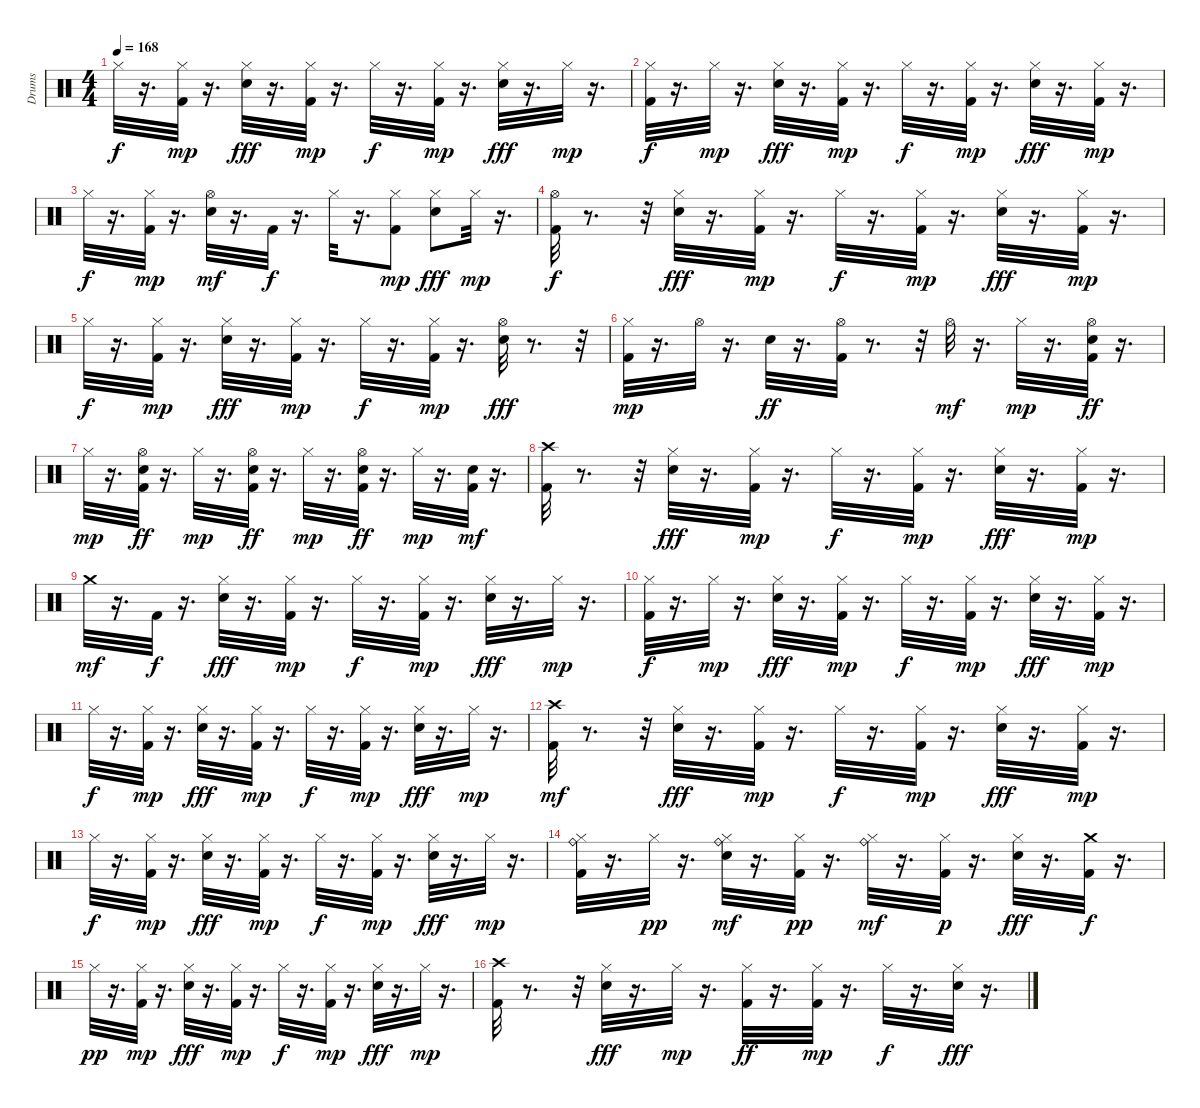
\track ("Drums" "Drums") {instrument percussion}
\staff {score}
\articulation defaults
\ts (4 4)
\tempo 168
\clef neutral
\ks c "Hi-Hat (closed)".32{dy f}
r.16{d} ("Kick (hit) 2" "Hi-Hat (closed)").32{dy mp} r.16{d} ("Electric Snare (hit)" "Hi-Hat (closed)").32{dy fff} r.16{d} ("Kick (hit) 2" "Hi-Hat (closed)").32{dy mp} r.16{d} "Hi-Hat (closed)".32{dy f} r.16{d} ("Kick (hit) 2" "Hi-Hat (closed)").32{dy mp} r.16{d} ("Electric Snare (hit)" "Hi-Hat (closed)").32{dy fff} r.16{d} "Hi-Hat (closed)".32{dy mp} r.16{d} |
("Kick (hit) 2" "Hi-Hat (closed)").32{dy f} r.16{d} "Hi-Hat (closed)".32{dy mp} r.16{d} ("Electric Snare (hit)" "Hi-Hat (closed)").32{dy fff} r.16{d} ("Kick (hit) 2" "Hi-Hat (closed)").32{dy mp} r.16{d} "Hi-Hat (closed)".32{dy f} r.16{d} ("Kick (hit) 2" "Hi-Hat (closed)").32{dy mp} r.16{d} ("Electric Snare (hit)" "Hi-Hat (closed)").32{dy fff} r.16{d} ("Kick (hit) 2" "Hi-Hat (closed)").32{dy mp} r.16{d} |
"Hi-Hat (closed)".32{dy f} r.16{d} ("Kick (hit) 2" "Hi-Hat (closed)").32{dy mp} r.16{d} ("Electric Snare (hit)" "Hi-Hat (open)").32{dy mf} r.16{d} "Kick (hit) 2".32{dy f} r.16{d} "Hi-Hat (closed)".32 r.16{d} ("Kick (hit) 2" "Hi-Hat (closed)").8{dy mp} ("Electric Snare (hit)" "Hi-Hat (closed)").8{dy fff} "Hi-Hat (closed)".32{dy mp} r.16{d} |
("Kick (hit) 2" "Hi-Hat (open)").32{dy f} r.8{d} r.32 ("Electric Snare (hit)" "Hi-Hat (closed)").32{dy fff} r.16{d} ("Kick (hit) 2" "Hi-Hat (closed)").32{dy mp} r.16{d} "Hi-Hat (closed)".32{dy f} r.16{d} ("Kick (hit) 2" "Hi-Hat (closed)").32{dy mp} r.16{d} ("Electric Snare (hit)" "Hi-Hat (closed)").32{dy fff} r.16{d} ("Kick (hit) 2" "Hi-Hat (closed)").32{dy mp} r.16{d} |
"Hi-Hat (closed)".32{dy f} r.16{d} ("Kick (hit) 2" "Hi-Hat (closed)").32{dy mp} r.16{d} ("Electric Snare (hit)" "Hi-Hat (closed)").32{dy fff} r.16{d} ("Kick (hit) 2" "Hi-Hat (closed)").32{dy mp} r.16{d} "Hi-Hat (closed)".32{dy f} r.16{d} ("Kick (hit) 2" "Hi-Hat (closed)").32{dy mp} r.16{d} ("Electric Snare (hit)" "Hi-Hat (open)").32{dy fff} r.8{d} r.32 |
("Kick (hit) 2" "Hi-Hat (closed)").32{dy mp} r.16{d} "Hi-Hat (open)".32 r.16{d} "Electric Snare (hit)".32{dy ff} r.16{d} ("Hi-Hat (open)" "Kick (hit) 2").32 r.8{d} r.32 "Hi-Hat (open)".32{dy mf} r.16{d} "Hi-Hat (closed)".32{dy mp} r.16{d} ("Hi-Hat (open)" "Kick (hit) 2" "Electric Snare (hit)").32{dy ff} r.16{d} |
"Hi-Hat (closed)".32{dy mp} r.16{d} ("Hi-Hat (open)" "Kick (hit) 2" "Electric Snare (hit)").32{dy ff} r.16{d} "Hi-Hat (closed)".32{dy mp} r.16{d} ("Hi-Hat (open)" "Kick (hit) 2" "Electric Snare (hit)").32{dy ff} r.16{d} "Hi-Hat (closed)".32{dy mp} r.16{d} ("Hi-Hat (open)" "Kick (hit) 2" "Electric Snare (hit)").32{dy ff} r.16{d} "Hi-Hat (closed)".32{dy mp} r.16{d} ("Electric Snare (hit)" "Kick (hit) 2").32{dy mf} r.16{d} |
("Kick (hit) 2" "Crash high (hit)").32 r.8{d} r.32 ("Electric Snare (hit)" "Hi-Hat (closed)").32{dy fff} r.16{d} ("Kick (hit) 2" "Hi-Hat (closed)").32{dy mp} r.16{d} "Hi-Hat (closed)".32{dy f} r.16{d} ("Kick (hit) 2" "Hi-Hat (closed)").32{dy mp} r.16{d} ("Electric Snare (hit)" "Hi-Hat (closed)").32{dy fff} r.16{d} ("Kick (hit) 2" "Hi-Hat (closed)").32{dy mp} r.16{d} |
"Crash medium (hit)".32{dy mf} r.16{d} "Kick (hit) 2".32{dy f} r.16{d} ("Electric Snare (hit)" "Hi-Hat (closed)").32{dy fff} r.16{d} ("Kick (hit) 2" "Hi-Hat (closed)").32{dy mp} r.16{d} "Hi-Hat (closed)".32{dy f} r.16{d} ("Kick (hit) 2" "Hi-Hat (closed)").32{dy mp} r.16{d} ("Electric Snare (hit)" "Hi-Hat (closed)").32{dy fff} r.16{d} "Hi-Hat (closed)".32{dy mp} r.16{d} |
("Kick (hit) 2" "Hi-Hat (closed)").32{dy f} r.16{d} "Hi-Hat (closed)".32{dy mp} r.16{d} ("Electric Snare (hit)" "Hi-Hat (closed)").32{dy fff} r.16{d} ("Kick (hit) 2" "Hi-Hat (closed)").32{dy mp} r.16{d} "Hi-Hat (closed)".32{dy f} r.16{d} ("Kick (hit) 2" "Hi-Hat (closed)").32{dy mp} r.16{d} ("Electric Snare (hit)" "Hi-Hat (closed)").32{dy fff} r.16{d} ("Kick (hit) 2" "Hi-Hat (closed)").32{dy mp} r.16{d} |
"Hi-Hat (closed)".32{dy f} r.16{d} ("Kick (hit) 2" "Hi-Hat (closed)").32{dy mp} r.16{d} ("Electric Snare (hit)" "Hi-Hat (closed)").32{dy fff} r.16{d} ("Kick (hit) 2" "Hi-Hat (closed)").32{dy mp} r.16{d} "Hi-Hat (closed)".32{dy f} r.16{d} ("Kick (hit) 2" "Hi-Hat (closed)").32{dy mp} r.16{d} ("Electric Snare (hit)" "Hi-Hat (closed)").32{dy fff} r.16{d} "Hi-Hat (closed)".32{dy mp} r.16{d} |
("Kick (hit) 2" "Crash high (hit)").32{dy mf} r.8{d} r.32 ("Electric Snare (hit)" "Hi-Hat (closed)").32{dy fff} r.16{d} ("Kick (hit) 2" "Hi-Hat (closed)").32{dy mp} r.16{d} "Hi-Hat (closed)".32{dy f} r.16{d} ("Kick (hit) 2" "Hi-Hat (closed)").32{dy mp} r.16{d} ("Electric Snare (hit)" "Hi-Hat (closed)").32{dy fff} r.16{d} ("Kick (hit) 2" "Hi-Hat (closed)").32{dy mp} r.16{d} |
"Hi-Hat (closed)".32{dy f} r.16{d} ("Kick (hit) 2" "Hi-Hat (closed)").32{dy mp} r.16{d} ("Electric Snare (hit)" "Hi-Hat (closed)").32{dy fff} r.16{d} ("Kick (hit) 2" "Hi-Hat (closed)").32{dy mp} r.16{d} "Hi-Hat (closed)".32{dy f} r.16{d} ("Kick (hit) 2" "Hi-Hat (closed)").32{dy mp} r.16{d} ("Electric Snare (hit)" "Hi-Hat (closed)").32{dy fff} r.16{d} "Hi-Hat (closed)".32{dy mp} r.16{d} |
("Kick (hit) 2" "Ride (bell)" "Hi-Hat (closed)").32 r.16{d} "Hi-Hat (closed)".32{dy pp} r.16{d} ("Electric Snare (hit)" "Ride (bell)" "Hi-Hat (closed)").32{dy mf} r.16{d} ("Kick (hit) 2" "Hi-Hat (closed)").32{dy pp} r.16{d} ("Ride (bell)" "Hi-Hat (closed)").32{dy mf} r.16{d} ("Kick (hit) 2" "Hi-Hat (closed)").32{dy p} r.16{d} ("Electric Snare (hit)" "Hi-Hat (closed)").32{dy fff} r.16{d} ("Kick (hit) 2" "Crash medium (hit)").32{dy f} r.16{d} |
"Hi-Hat (closed)".32{dy pp} r.16{d} ("Kick (hit) 2" "Hi-Hat (closed)").32{dy mp} r.16{d} ("Electric Snare (hit)" "Hi-Hat (closed)").32{dy fff} r.16{d} ("Kick (hit) 2" "Hi-Hat (closed)").32{dy mp} r.16{d} "Hi-Hat (closed)".32{dy f} r.16{d} ("Kick (hit) 2" "Hi-Hat (closed)").32{dy mp} r.16{d} ("Electric Snare (hit)" "Hi-Hat (closed)").32{dy fff} r.16{d} "Hi-Hat (closed)".32{dy mp} r.16{d} |
("Kick (hit) 2" "Crash high (hit)").32 r.8{d} r.32 ("Electric Snare (hit)" "Hi-Hat (closed)").32{dy fff} r.16{d} "Hi-Hat (closed)".32{dy mp} r.16{d} ("Hi-Hat (closed)" "Kick (hit) 2").32{dy ff} r.16{d} ("Hi-Hat (closed)" "Kick (hit) 2").32{dy mp} r.16{d} "Hi-Hat (closed)".32{dy f} r.16{d} ("Hi-Hat (closed)" "Electric Snare (hit)").32{dy fff} r.16{d}
